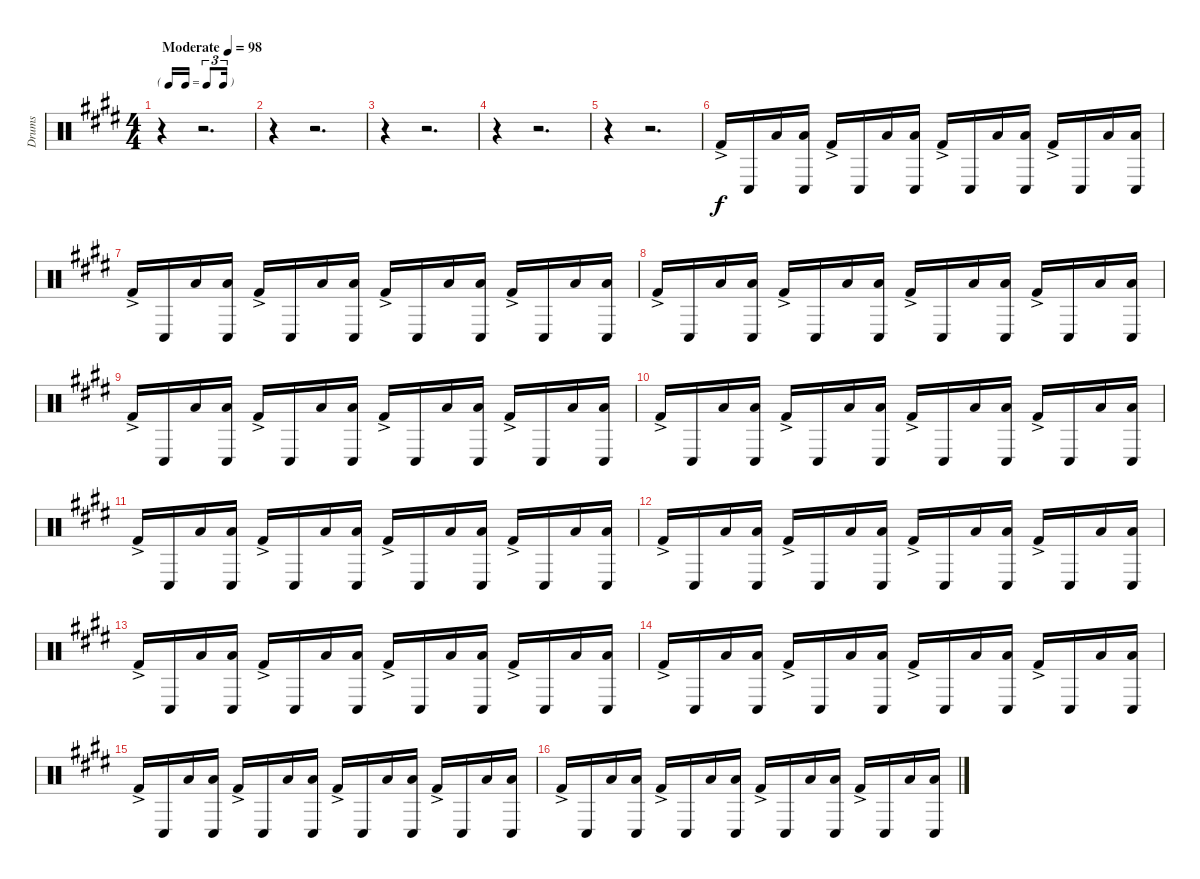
\track ("Drums" "Drums") {instrument percussion}
\staff {score}
\articulation defaults
\ts (4 4)
\tf triplet16th
\tempo (98 "Moderate")
\clef neutral
\ks e
r.4{dy f} r.2{d} |
r.4 r.2{d} |
r.4 r.2{d} |
r.4 r.2{d} |
r.4 r.2{d} |
"Kick (hit) 2"{ac}.16 "Conga low (hit)".16 "Low Tom (hit)".16 ("Low Tom (hit)" "Conga low (hit)").16 "Kick (hit) 2"{ac}.16 "Conga low (hit)".16 "Low Tom (hit)".16 ("Low Tom (hit)" "Conga low (hit)").16 "Kick (hit) 2"{ac}.16 "Conga low (hit)".16 "Low Tom (hit)".16 ("Low Tom (hit)" "Conga low (hit)").16 "Kick (hit) 2"{ac}.16 "Conga low (hit)".16 "Low Tom (hit)".16 ("Low Tom (hit)" "Conga low (hit)").16 |
"Kick (hit) 2"{ac}.16 "Conga low (hit)".16 "Low Tom (hit)".16 ("Low Tom (hit)" "Conga low (hit)").16 "Kick (hit) 2"{ac}.16 "Conga low (hit)".16 "Low Tom (hit)".16 ("Low Tom (hit)" "Conga low (hit)").16 "Kick (hit) 2"{ac}.16 "Conga low (hit)".16 "Low Tom (hit)".16 ("Low Tom (hit)" "Conga low (hit)").16 "Kick (hit) 2"{ac}.16 "Conga low (hit)".16 "Low Tom (hit)".16 ("Low Tom (hit)" "Conga low (hit)").16 |
"Kick (hit) 2"{ac}.16 "Conga low (hit)".16 "Low Tom (hit)".16 ("Low Tom (hit)" "Conga low (hit)").16 "Kick (hit) 2"{ac}.16 "Conga low (hit)".16 "Low Tom (hit)".16 ("Low Tom (hit)" "Conga low (hit)").16 "Kick (hit) 2"{ac}.16 "Conga low (hit)".16 "Low Tom (hit)".16 ("Low Tom (hit)" "Conga low (hit)").16 "Kick (hit) 2"{ac}.16 "Conga low (hit)".16 "Low Tom (hit)".16 ("Low Tom (hit)" "Conga low (hit)").16 |
"Kick (hit) 2"{ac}.16 "Conga low (hit)".16 "Low Tom (hit)".16 ("Low Tom (hit)" "Conga low (hit)").16 "Kick (hit) 2"{ac}.16 "Conga low (hit)".16 "Low Tom (hit)".16 ("Low Tom (hit)" "Conga low (hit)").16 "Kick (hit) 2"{ac}.16 "Conga low (hit)".16 "Low Tom (hit)".16 ("Low Tom (hit)" "Conga low (hit)").16 "Kick (hit) 2"{ac}.16 "Conga low (hit)".16 "Low Tom (hit)".16 ("Low Tom (hit)" "Conga low (hit)").16 |
"Kick (hit) 2"{ac}.16 "Conga low (hit)".16 "Low Tom (hit)".16 ("Low Tom (hit)" "Conga low (hit)").16 "Kick (hit) 2"{ac}.16 "Conga low (hit)".16 "Low Tom (hit)".16 ("Low Tom (hit)" "Conga low (hit)").16 "Kick (hit) 2"{ac}.16 "Conga low (hit)".16 "Low Tom (hit)".16 ("Low Tom (hit)" "Conga low (hit)").16 "Kick (hit) 2"{ac}.16 "Conga low (hit)".16 "Low Tom (hit)".16 ("Low Tom (hit)" "Conga low (hit)").16 |
"Kick (hit) 2"{ac}.16 "Conga low (hit)".16 "Low Tom (hit)".16 ("Low Tom (hit)" "Conga low (hit)").16 "Kick (hit) 2"{ac}.16 "Conga low (hit)".16 "Low Tom (hit)".16 ("Low Tom (hit)" "Conga low (hit)").16 "Kick (hit) 2"{ac}.16 "Conga low (hit)".16 "Low Tom (hit)".16 ("Low Tom (hit)" "Conga low (hit)").16 "Kick (hit) 2"{ac}.16 "Conga low (hit)".16 "Low Tom (hit)".16 ("Low Tom (hit)" "Conga low (hit)").16 |
"Kick (hit) 2"{ac}.16 "Conga low (hit)".16 "Low Tom (hit)".16 ("Low Tom (hit)" "Conga low (hit)").16 "Kick (hit) 2"{ac}.16 "Conga low (hit)".16 "Low Tom (hit)".16 ("Low Tom (hit)" "Conga low (hit)").16 "Kick (hit) 2"{ac}.16 "Conga low (hit)".16 "Low Tom (hit)".16 ("Low Tom (hit)" "Conga low (hit)").16 "Kick (hit) 2"{ac}.16 "Conga low (hit)".16 "Low Tom (hit)".16 ("Low Tom (hit)" "Conga low (hit)").16 |
"Kick (hit) 2"{ac}.16 "Conga low (hit)".16 "Low Tom (hit)".16 ("Low Tom (hit)" "Conga low (hit)").16 "Kick (hit) 2"{ac}.16 "Conga low (hit)".16 "Low Tom (hit)".16 ("Low Tom (hit)" "Conga low (hit)").16 "Kick (hit) 2"{ac}.16 "Conga low (hit)".16 "Low Tom (hit)".16 ("Low Tom (hit)" "Conga low (hit)").16 "Kick (hit) 2"{ac}.16 "Conga low (hit)".16 "Low Tom (hit)".16 ("Low Tom (hit)" "Conga low (hit)").16 |
"Kick (hit) 2"{ac}.16 "Conga low (hit)".16 "Low Tom (hit)".16 ("Low Tom (hit)" "Conga low (hit)").16 "Kick (hit) 2"{ac}.16 "Conga low (hit)".16 "Low Tom (hit)".16 ("Low Tom (hit)" "Conga low (hit)").16 "Kick (hit) 2"{ac}.16 "Conga low (hit)".16 "Low Tom (hit)".16 ("Low Tom (hit)" "Conga low (hit)").16 "Kick (hit) 2"{ac}.16 "Conga low (hit)".16 "Low Tom (hit)".16 ("Low Tom (hit)" "Conga low (hit)").16 |
"Kick (hit) 2"{ac}.16 "Conga low (hit)".16 "Low Tom (hit)".16 ("Low Tom (hit)" "Conga low (hit)").16 "Kick (hit) 2"{ac}.16 "Conga low (hit)".16 "Low Tom (hit)".16 ("Low Tom (hit)" "Conga low (hit)").16 "Kick (hit) 2"{ac}.16 "Conga low (hit)".16 "Low Tom (hit)".16 ("Low Tom (hit)" "Conga low (hit)").16 "Kick (hit) 2"{ac}.16 "Conga low (hit)".16 "Low Tom (hit)".16 ("Low Tom (hit)" "Conga low (hit)").16 |
"Kick (hit) 2"{ac}.16 "Conga low (hit)".16 "Low Tom (hit)".16 ("Low Tom (hit)" "Conga low (hit)").16 "Kick (hit) 2"{ac}.16 "Conga low (hit)".16 "Low Tom (hit)".16 ("Low Tom (hit)" "Conga low (hit)").16 "Kick (hit) 2"{ac}.16 "Conga low (hit)".16 "Low Tom (hit)".16 ("Low Tom (hit)" "Conga low (hit)").16 "Kick (hit) 2"{ac}.16 "Conga low (hit)".16 "Low Tom (hit)".16 ("Low Tom (hit)" "Conga low (hit)").16
